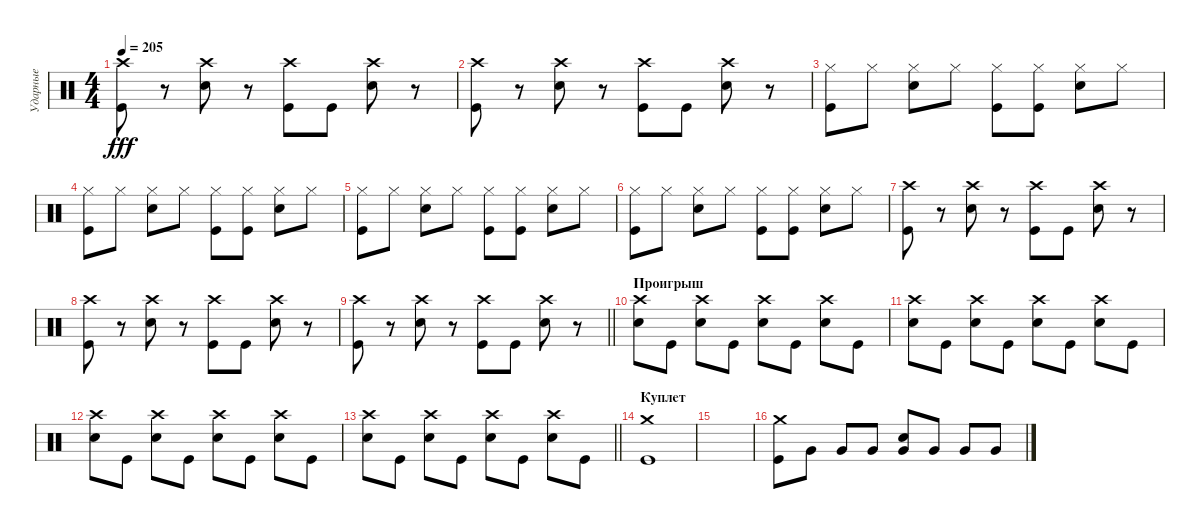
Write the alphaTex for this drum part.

\track ("Ударные" "Ударные") {instrument percussion}
\staff {score}
\articulation defaults
\ts (4 4)
\tempo 205
\clef neutral
\ks c
("Kick (hit)" "Crash high (hit)").8{dy fff} r.8 ("Electric Snare (hit)" "Crash high (hit)").8 r.8 ("Kick (hit)" "Crash high (hit)").8 "Kick (hit)".8 ("Electric Snare (hit)" "Crash high (hit)").8 r.8 |
("Kick (hit)" "Crash high (hit)").8 r.8 ("Electric Snare (hit)" "Crash high (hit)").8 r.8 ("Kick (hit)" "Crash high (hit)").8 "Kick (hit)".8 ("Electric Snare (hit)" "Crash high (hit)").8 r.8 |
("Kick (hit)" "Hi-Hat (closed)").8 "Hi-Hat (closed)".8 ("Electric Snare (hit)" "Hi-Hat (closed)").8 "Hi-Hat (closed)".8 ("Kick (hit)" "Hi-Hat (closed)").8 ("Kick (hit)" "Hi-Hat (closed)").8 ("Electric Snare (hit)" "Hi-Hat (closed)").8 "Hi-Hat (closed)".8 |
("Kick (hit)" "Hi-Hat (closed)").8 "Hi-Hat (closed)".8 ("Electric Snare (hit)" "Hi-Hat (closed)").8 "Hi-Hat (closed)".8 ("Kick (hit)" "Hi-Hat (closed)").8 ("Kick (hit)" "Hi-Hat (closed)").8 ("Electric Snare (hit)" "Hi-Hat (closed)").8 "Hi-Hat (closed)".8 |
("Kick (hit)" "Hi-Hat (closed)").8 "Hi-Hat (closed)".8 ("Electric Snare (hit)" "Hi-Hat (closed)").8 "Hi-Hat (closed)".8 ("Kick (hit)" "Hi-Hat (closed)").8 ("Kick (hit)" "Hi-Hat (closed)").8 ("Electric Snare (hit)" "Hi-Hat (closed)").8 "Hi-Hat (closed)".8 |
("Kick (hit)" "Hi-Hat (closed)").8 "Hi-Hat (closed)".8 ("Electric Snare (hit)" "Hi-Hat (closed)").8 "Hi-Hat (closed)".8 ("Kick (hit)" "Hi-Hat (closed)").8 ("Kick (hit)" "Hi-Hat (closed)").8 ("Electric Snare (hit)" "Hi-Hat (closed)").8 "Hi-Hat (closed)".8 |
("Kick (hit)" "Crash high (hit)").8 r.8 ("Electric Snare (hit)" "Crash high (hit)").8 r.8 ("Kick (hit)" "Crash high (hit)").8 "Kick (hit)".8 ("Electric Snare (hit)" "Crash high (hit)").8 r.8 |
("Kick (hit)" "Crash high (hit)").8 r.8 ("Electric Snare (hit)" "Crash high (hit)").8 r.8 ("Kick (hit)" "Crash high (hit)").8 "Kick (hit)".8 ("Electric Snare (hit)" "Crash high (hit)").8 r.8 |
\barLineRight lightlight
("Kick (hit)" "Crash high (hit)").8 r.8 ("Electric Snare (hit)" "Crash high (hit)").8 r.8 ("Kick (hit)" "Crash high (hit)").8 "Kick (hit)".8 ("Electric Snare (hit)" "Crash high (hit)").8 r.8 |
\section ("" "Проигрыш")
("Crash high (hit)" "Electric Snare (hit)").8 "Kick (hit)".8 ("Crash high (hit)" "Electric Snare (hit)").8 "Kick (hit)".8 ("Crash high (hit)" "Electric Snare (hit)").8 "Kick (hit)".8 ("Crash high (hit)" "Electric Snare (hit)").8 "Kick (hit)".8 |
("Crash high (hit)" "Electric Snare (hit)").8 "Kick (hit)".8 ("Crash high (hit)" "Electric Snare (hit)").8 "Kick (hit)".8 ("Crash high (hit)" "Electric Snare (hit)").8 "Kick (hit)".8 ("Crash high (hit)" "Electric Snare (hit)").8 "Kick (hit)".8 |
("Crash high (hit)" "Electric Snare (hit)").8 "Kick (hit)".8 ("Crash high (hit)" "Electric Snare (hit)").8 "Kick (hit)".8 ("Crash high (hit)" "Electric Snare (hit)").8 "Kick (hit)".8 ("Crash high (hit)" "Electric Snare (hit)").8 "Kick (hit)".8 |
\barLineRight lightlight
("Crash high (hit)" "Electric Snare (hit)").8 "Kick (hit)".8 ("Crash high (hit)" "Electric Snare (hit)").8 "Kick (hit)".8 ("Crash high (hit)" "Electric Snare (hit)").8 "Kick (hit)".8 ("Crash high (hit)" "Electric Snare (hit)").8 "Kick (hit)".8 |
\section ("" "Куплет")
("Crash medium (hit)" "Kick (hit)").1 |
|
("Crash medium (hit)" "Kick (hit)").8 "Very Low Tom (hit)".8 "Very Low Tom (hit)".8 "Very Low Tom (hit)".8 ("Very Low Tom (hit)" "Electric Snare (hit)").8 "Very Low Tom (hit)".8 "Very Low Tom (hit)".8 "Very Low Tom (hit)".8
